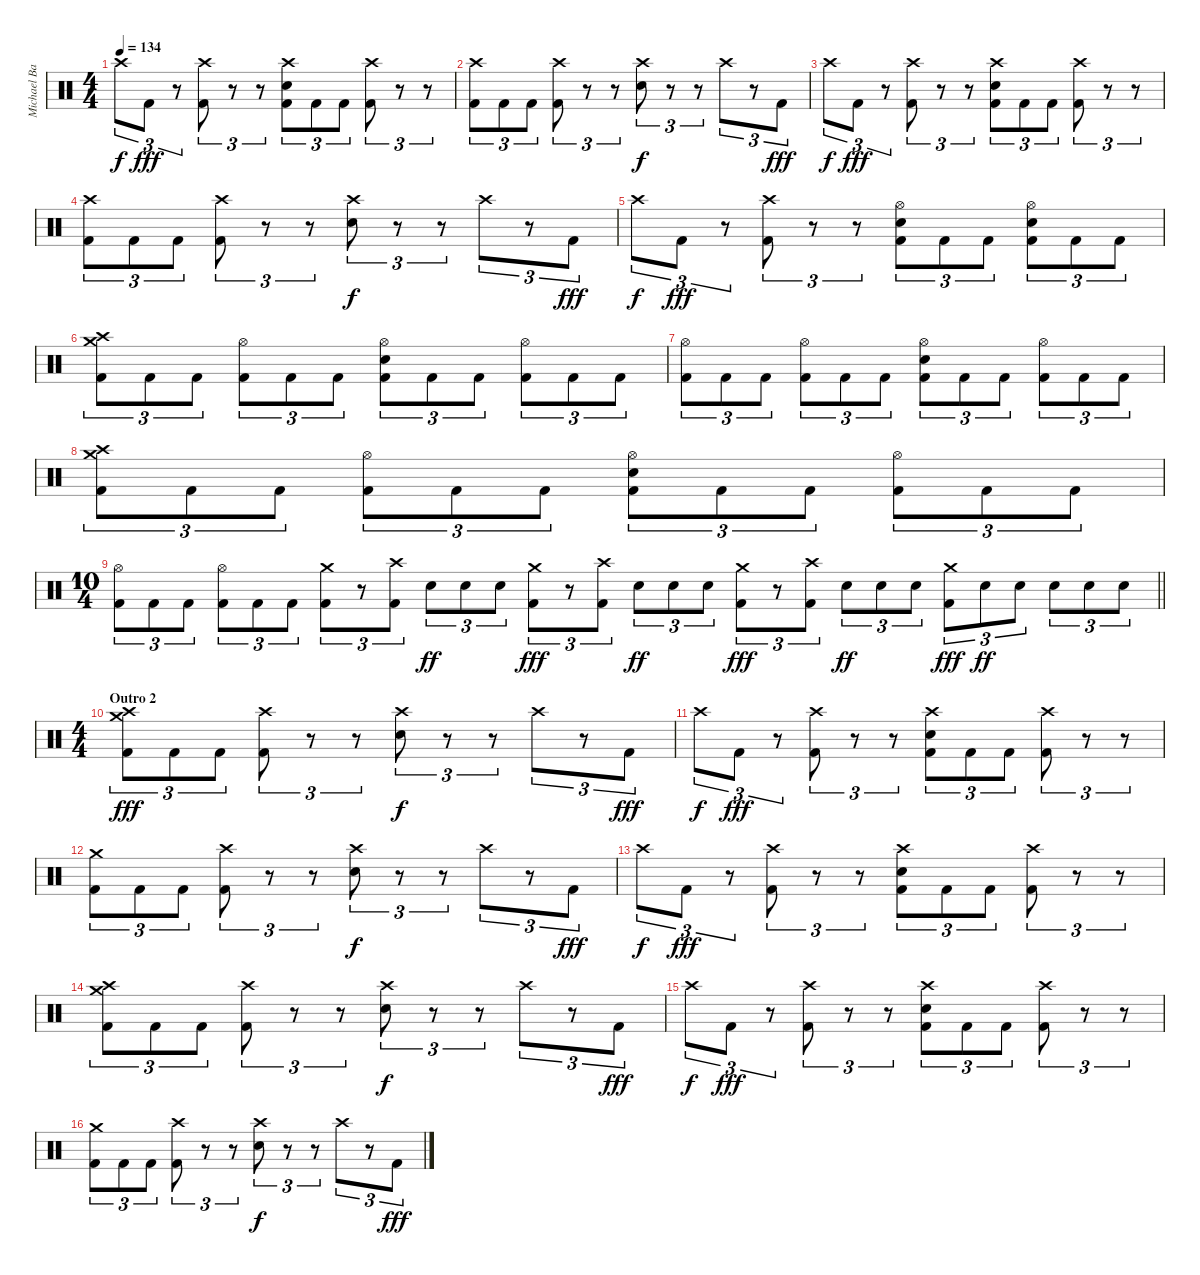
\track ("Michael Bartlett " "Michael Ba") {instrument percussion}
\staff {score}
\articulation defaults
\ts (4 4)
\tempo 134
\clef neutral
\ks c "Crash high (hit)".8{tu (3 2) dy f} "Kick (hit) 2".8{tu (3 2) dy fff}
r.8{tu (3 2)} ("Crash high (hit)" "Kick (hit) 2").8{tu (3 2)} r.8{tu (3 2)} r.8{tu (3 2)} ("Crash high (hit)" "Electric Snare (hit)" "Kick (hit) 2").8{tu (3 2)} "Kick (hit) 2".8{tu (3 2)} "Kick (hit) 2".8{tu (3 2)} ("Crash high (hit)" "Kick (hit) 2").8{tu (3 2)} r.8{tu (3 2)} r.8{tu (3 2)} |
("Crash high (hit)" "Kick (hit) 2").8{tu (3 2)} "Kick (hit) 2".8{tu (3 2)} "Kick (hit) 2".8{tu (3 2)} ("Crash high (hit)" "Kick (hit) 2").8{tu (3 2)} r.8{tu (3 2)} r.8{tu (3 2)} ("Crash high (hit)" "Electric Snare (hit)").8{tu (3 2) dy f} r.8{tu (3 2)} r.8{tu (3 2)} "Crash high (hit)".8{tu (3 2)} r.8{tu (3 2)} "Kick (hit) 2".8{tu (3 2) dy fff} |
"Crash high (hit)".8{tu (3 2) dy f} "Kick (hit) 2".8{tu (3 2) dy fff} r.8{tu (3 2)} ("Crash high (hit)" "Kick (hit) 2").8{tu (3 2)} r.8{tu (3 2)} r.8{tu (3 2)} ("Crash high (hit)" "Electric Snare (hit)" "Kick (hit) 2").8{tu (3 2)} "Kick (hit) 2".8{tu (3 2)} "Kick (hit) 2".8{tu (3 2)} ("Crash high (hit)" "Kick (hit) 2").8{tu (3 2)} r.8{tu (3 2)} r.8{tu (3 2)} |
("Crash high (hit)" "Kick (hit) 2").8{tu (3 2)} "Kick (hit) 2".8{tu (3 2)} "Kick (hit) 2".8{tu (3 2)} ("Crash high (hit)" "Kick (hit) 2").8{tu (3 2)} r.8{tu (3 2)} r.8{tu (3 2)} ("Crash high (hit)" "Electric Snare (hit)").8{tu (3 2) dy f} r.8{tu (3 2)} r.8{tu (3 2)} "Crash high (hit)".8{tu (3 2)} r.8{tu (3 2)} "Kick (hit) 2".8{tu (3 2) dy fff} |
"Crash high (hit)".8{tu (3 2) dy f} "Kick (hit) 2".8{tu (3 2) dy fff} r.8{tu (3 2)} ("Crash high (hit)" "Kick (hit) 2").8{tu (3 2)} r.8{tu (3 2)} r.8{tu (3 2)} ("Hi-Hat (open)" "Electric Snare (hit)" "Kick (hit) 2").8{tu (3 2)} "Kick (hit) 2".8{tu (3 2)} "Kick (hit) 2".8{tu (3 2)} ("Hi-Hat (open)" "Electric Snare (hit)" "Kick (hit) 2").8{tu (3 2)} "Kick (hit) 2".8{tu (3 2)} "Kick (hit) 2".8{tu (3 2)} |
("Crash medium (hit)" "Crash high (hit)" "Kick (hit) 2").8{tu (3 2)} "Kick (hit) 2".8{tu (3 2)} "Kick (hit) 2".8{tu (3 2)} ("Hi-Hat (open)" "Kick (hit) 2").8{tu (3 2)} "Kick (hit) 2".8{tu (3 2)} "Kick (hit) 2".8{tu (3 2)} ("Hi-Hat (open)" "Electric Snare (hit)" "Kick (hit) 2").8{tu (3 2)} "Kick (hit) 2".8{tu (3 2)} "Kick (hit) 2".8{tu (3 2)} ("Hi-Hat (open)" "Kick (hit) 2").8{tu (3 2)} "Kick (hit) 2".8{tu (3 2)} "Kick (hit) 2".8{tu (3 2)} |
("Hi-Hat (open)" "Kick (hit) 2").8{tu (3 2)} "Kick (hit) 2".8{tu (3 2)} "Kick (hit) 2".8{tu (3 2)} ("Hi-Hat (open)" "Kick (hit) 2").8{tu (3 2)} "Kick (hit) 2".8{tu (3 2)} "Kick (hit) 2".8{tu (3 2)} ("Hi-Hat (open)" "Electric Snare (hit)" "Kick (hit) 2").8{tu (3 2)} "Kick (hit) 2".8{tu (3 2)} "Kick (hit) 2".8{tu (3 2)} ("Hi-Hat (open)" "Kick (hit) 2").8{tu (3 2)} "Kick (hit) 2".8{tu (3 2)} "Kick (hit) 2".8{tu (3 2)} |
("Crash medium (hit)" "Crash high (hit)" "Kick (hit) 2").8{tu (3 2)} "Kick (hit) 2".8{tu (3 2)} "Kick (hit) 2".8{tu (3 2)} ("Hi-Hat (open)" "Kick (hit) 2").8{tu (3 2)} "Kick (hit) 2".8{tu (3 2)} "Kick (hit) 2".8{tu (3 2)} ("Hi-Hat (open)" "Electric Snare (hit)" "Kick (hit) 2").8{tu (3 2)} "Kick (hit) 2".8{tu (3 2)} "Kick (hit) 2".8{tu (3 2)} ("Hi-Hat (open)" "Kick (hit) 2").8{tu (3 2)} "Kick (hit) 2".8{tu (3 2)} "Kick (hit) 2".8{tu (3 2)} |
\ts (10 4)
\barLineRight lightlight
("Hi-Hat (open)" "Kick (hit) 2").8{tu (3 2)} "Kick (hit) 2".8{tu (3 2)} "Kick (hit) 2".8{tu (3 2)} ("Hi-Hat (open)" "Kick (hit) 2").8{tu (3 2)} "Kick (hit) 2".8{tu (3 2)} "Kick (hit) 2".8{tu (3 2)} ("Crash medium (hit)" "Kick (hit) 2").8{tu (3 2)} r.8{tu (3 2)} ("Crash high (hit)" "Kick (hit) 2").8{tu (3 2)} "Electric Snare (hit)".8{tu (3 2) dy ff} "Electric Snare (hit)".8{tu (3 2)} "Electric Snare (hit)".8{tu (3 2)} ("Crash medium (hit)" "Kick (hit) 2").8{tu (3 2) dy fff} r.8{tu (3 2)} ("Crash high (hit)" "Kick (hit) 2").8{tu (3 2)} "Electric Snare (hit)".8{tu (3 2) dy ff} "Electric Snare (hit)".8{tu (3 2)} "Electric Snare (hit)".8{tu (3 2)} ("Crash medium (hit)" "Kick (hit) 2").8{tu (3 2) dy fff} r.8{tu (3 2)} ("Crash high (hit)" "Kick (hit) 2").8{tu (3 2)} "Electric Snare (hit)".8{tu (3 2) dy ff} "Electric Snare (hit)".8{tu (3 2)} "Electric Snare (hit)".8{tu (3 2)} ("Crash medium (hit)" "Kick (hit) 2").8{tu (3 2) dy fff} "Electric Snare (hit)".8{tu (3 2) dy ff} "Electric Snare (hit)".8{tu (3 2)} "Electric Snare (hit)".8{tu (3 2)} "Electric Snare (hit)".8{tu (3 2)} "Electric Snare (hit)".8{tu (3 2)} |
\ts (4 4)
\section ("" "Outro 2")
("Crash medium (hit)" "Crash high (hit)" "Kick (hit) 2").8{tu (3 2) dy fff} "Kick (hit) 2".8{tu (3 2)} "Kick (hit) 2".8{tu (3 2)} ("Crash high (hit)" "Kick (hit) 2").8{tu (3 2)} r.8{tu (3 2)} r.8{tu (3 2)} ("Crash high (hit)" "Electric Snare (hit)").8{tu (3 2) dy f} r.8{tu (3 2)} r.8{tu (3 2)} "Crash high (hit)".8{tu (3 2)} r.8{tu (3 2)} "Kick (hit) 2".8{tu (3 2) dy fff} |
"Crash high (hit)".8{tu (3 2) dy f} "Kick (hit) 2".8{tu (3 2) dy fff} r.8{tu (3 2)} ("Crash high (hit)" "Kick (hit) 2").8{tu (3 2)} r.8{tu (3 2)} r.8{tu (3 2)} ("Crash high (hit)" "Electric Snare (hit)" "Kick (hit) 2").8{tu (3 2)} "Kick (hit) 2".8{tu (3 2)} "Kick (hit) 2".8{tu (3 2)} ("Crash high (hit)" "Kick (hit) 2").8{tu (3 2)} r.8{tu (3 2)} r.8{tu (3 2)} |
("Crash medium (hit)" "Kick (hit) 2").8{tu (3 2)} "Kick (hit) 2".8{tu (3 2)} "Kick (hit) 2".8{tu (3 2)} ("Crash high (hit)" "Kick (hit) 2").8{tu (3 2)} r.8{tu (3 2)} r.8{tu (3 2)} ("Crash high (hit)" "Electric Snare (hit)").8{tu (3 2) dy f} r.8{tu (3 2)} r.8{tu (3 2)} "Crash high (hit)".8{tu (3 2)} r.8{tu (3 2)} "Kick (hit) 2".8{tu (3 2) dy fff} |
"Crash high (hit)".8{tu (3 2) dy f} "Kick (hit) 2".8{tu (3 2) dy fff} r.8{tu (3 2)} ("Crash high (hit)" "Kick (hit) 2").8{tu (3 2)} r.8{tu (3 2)} r.8{tu (3 2)} ("Crash high (hit)" "Electric Snare (hit)" "Kick (hit) 2").8{tu (3 2)} "Kick (hit) 2".8{tu (3 2)} "Kick (hit) 2".8{tu (3 2)} ("Crash high (hit)" "Kick (hit) 2").8{tu (3 2)} r.8{tu (3 2)} r.8{tu (3 2)} |
("Crash high (hit)" "Crash medium (hit)" "Kick (hit) 2").8{tu (3 2)} "Kick (hit) 2".8{tu (3 2)} "Kick (hit) 2".8{tu (3 2)} ("Crash high (hit)" "Kick (hit) 2").8{tu (3 2)} r.8{tu (3 2)} r.8{tu (3 2)} ("Crash high (hit)" "Electric Snare (hit)").8{tu (3 2) dy f} r.8{tu (3 2)} r.8{tu (3 2)} "Crash high (hit)".8{tu (3 2)} r.8{tu (3 2)} "Kick (hit) 2".8{tu (3 2) dy fff} |
"Crash high (hit)".8{tu (3 2) dy f} "Kick (hit) 2".8{tu (3 2) dy fff} r.8{tu (3 2)} ("Crash high (hit)" "Kick (hit) 2").8{tu (3 2)} r.8{tu (3 2)} r.8{tu (3 2)} ("Crash high (hit)" "Electric Snare (hit)" "Kick (hit) 2").8{tu (3 2)} "Kick (hit) 2".8{tu (3 2)} "Kick (hit) 2".8{tu (3 2)} ("Crash high (hit)" "Kick (hit) 2").8{tu (3 2)} r.8{tu (3 2)} r.8{tu (3 2)} |
("Crash medium (hit)" "Kick (hit) 2").8{tu (3 2)} "Kick (hit) 2".8{tu (3 2)} "Kick (hit) 2".8{tu (3 2)} ("Crash high (hit)" "Kick (hit) 2").8{tu (3 2)} r.8{tu (3 2)} r.8{tu (3 2)} ("Crash high (hit)" "Electric Snare (hit)").8{tu (3 2) dy f} r.8{tu (3 2)} r.8{tu (3 2)} "Crash high (hit)".8{tu (3 2)} r.8{tu (3 2)} "Kick (hit) 2".8{tu (3 2) dy fff}
